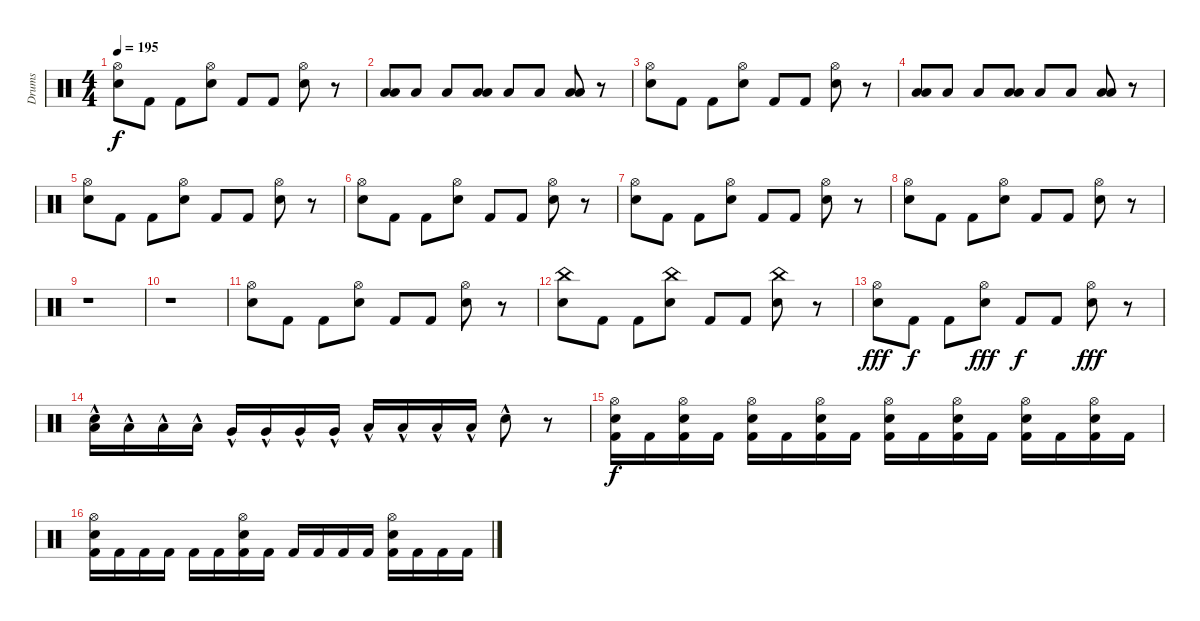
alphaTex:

\track ("Drums" "Drums") {instrument percussion}
\staff {score}
\articulation defaults
\ts (4 4)
\tempo 195
\clef neutral
\ks c
("Hi-Hat (open)" "Electric Snare (hit)").8{dy f} "Kick (hit) 2".8 "Kick (hit) 2".8 ("Hi-Hat (open)" "Electric Snare (hit)").8 "Kick (hit) 2".8 "Kick (hit) 2".8 ("Hi-Hat (open)" "Electric Snare (hit)").8 r.8 |
("Low Floor Tom (hit)" "Low Tom (hit)").8 "Low Floor Tom (hit)".8 "Low Floor Tom (hit)".8 ("Low Floor Tom (hit)" "Low Tom (hit)").8 "Low Floor Tom (hit)".8 "Low Floor Tom (hit)".8 ("Low Floor Tom (hit)" "Low Tom (hit)").8 r.8 |
("Hi-Hat (open)" "Electric Snare (hit)").8 "Kick (hit) 2".8 "Kick (hit) 2".8 ("Hi-Hat (open)" "Electric Snare (hit)").8 "Kick (hit) 2".8 "Kick (hit) 2".8 ("Hi-Hat (open)" "Electric Snare (hit)").8 r.8 |
("Low Floor Tom (hit)" "Low Tom (hit)").8 "Low Floor Tom (hit)".8 "Low Floor Tom (hit)".8 ("Low Floor Tom (hit)" "Low Tom (hit)").8 "Low Floor Tom (hit)".8 "Low Floor Tom (hit)".8 ("Low Floor Tom (hit)" "Low Tom (hit)").8 r.8 |
("Hi-Hat (open)" "Electric Snare (hit)").8 "Kick (hit) 2".8 "Kick (hit) 2".8 ("Hi-Hat (open)" "Electric Snare (hit)").8 "Kick (hit) 2".8 "Kick (hit) 2".8 ("Hi-Hat (open)" "Electric Snare (hit)").8 r.8 |
("Hi-Hat (open)" "Electric Snare (hit)").8 "Kick (hit) 2".8 "Kick (hit) 2".8 ("Hi-Hat (open)" "Electric Snare (hit)").8 "Kick (hit) 2".8 "Kick (hit) 2".8 ("Hi-Hat (open)" "Electric Snare (hit)").8 r.8 |
("Hi-Hat (open)" "Electric Snare (hit)").8 "Kick (hit) 2".8 "Kick (hit) 2".8 ("Hi-Hat (open)" "Electric Snare (hit)").8 "Kick (hit) 2".8 "Kick (hit) 2".8 ("Hi-Hat (open)" "Electric Snare (hit)").8 r.8 |
("Hi-Hat (open)" "Electric Snare (hit)").8 "Kick (hit) 2".8 "Kick (hit) 2".8 ("Hi-Hat (open)" "Electric Snare (hit)").8 "Kick (hit) 2".8 "Kick (hit) 2".8 ("Hi-Hat (open)" "Electric Snare (hit)").8 r.8 |
r.1 |
r.1 |
("Hi-Hat (open)" "Electric Snare (hit)").8 "Kick (hit) 2".8 "Kick (hit) 2".8 ("Hi-Hat (open)" "Electric Snare (hit)").8 "Kick (hit) 2".8 "Kick (hit) 2".8 ("Hi-Hat (open)" "Electric Snare (hit)").8 r.8 |
("China (hit)" "Electric Snare (hit)").8 "Kick (hit) 2".8 "Kick (hit) 2".8 ("China (hit)" "Electric Snare (hit)").8 "Kick (hit) 2".8 "Kick (hit) 2".8 ("China (hit)" "Electric Snare (hit)").8 r.8 |
("Hi-Hat (open)" "Electric Snare (hit)").8{dy fff} "Kick (hit) 2".8{dy f} "Kick (hit) 2".8 ("Hi-Hat (open)" "Electric Snare (hit)").8{dy fff} "Kick (hit) 2".8{dy f} "Kick (hit) 2".8 ("Hi-Hat (open)" "Electric Snare (hit)").8{dy fff} r.8 |
("Electric Snare (hit)"{hac} "Low Tom (hit)").16 "Low Tom (hit)"{hac}.16 "Low Tom (hit)"{hac}.16 "Low Tom (hit)"{hac}.16 "Very Low Tom (hit)"{hac}.16 "Very Low Tom (hit)"{hac}.16 "Very Low Tom (hit)"{hac}.16 "Very Low Tom (hit)"{hac}.16 "Low Floor Tom (hit)"{hac}.16 "Low Floor Tom (hit)"{hac}.16 "Low Floor Tom (hit)"{hac}.16 "Low Floor Tom (hit)"{hac}.16 "Electric Snare (hit)"{hac}.8 r.8 |
("Hi-Hat (open)" "Kick (hit) 2" "Electric Snare (hit)").16{dy f} "Kick (hit) 2".16 ("Hi-Hat (open)" "Kick (hit) 2" "Electric Snare (hit)").16 "Kick (hit) 2".16 ("Hi-Hat (open)" "Kick (hit) 2" "Electric Snare (hit)").16 "Kick (hit) 2".16 ("Hi-Hat (open)" "Kick (hit) 2" "Electric Snare (hit)").16 "Kick (hit) 2".16 ("Hi-Hat (open)" "Kick (hit) 2" "Electric Snare (hit)").16 "Kick (hit) 2".16 ("Hi-Hat (open)" "Kick (hit) 2" "Electric Snare (hit)").16 "Kick (hit) 2".16 ("Hi-Hat (open)" "Kick (hit) 2" "Electric Snare (hit)").16 "Kick (hit) 2".16 ("Hi-Hat (open)" "Kick (hit) 2" "Electric Snare (hit)").16 "Kick (hit) 2".16 |
("Hi-Hat (open)" "Electric Snare (hit)" "Kick (hit) 2").16 "Kick (hit) 2".16 "Kick (hit) 2".16 "Kick (hit) 2".16 "Kick (hit) 2".16 "Kick (hit) 2".16 ("Hi-Hat (open)" "Electric Snare (hit)" "Kick (hit) 2").16 "Kick (hit) 2".16 "Kick (hit) 2".16 "Kick (hit) 2".16 "Kick (hit) 2".16 "Kick (hit) 2".16 ("Hi-Hat (open)" "Electric Snare (hit)" "Kick (hit) 2").16 "Kick (hit) 2".16 "Kick (hit) 2".16 "Kick (hit) 2".16
